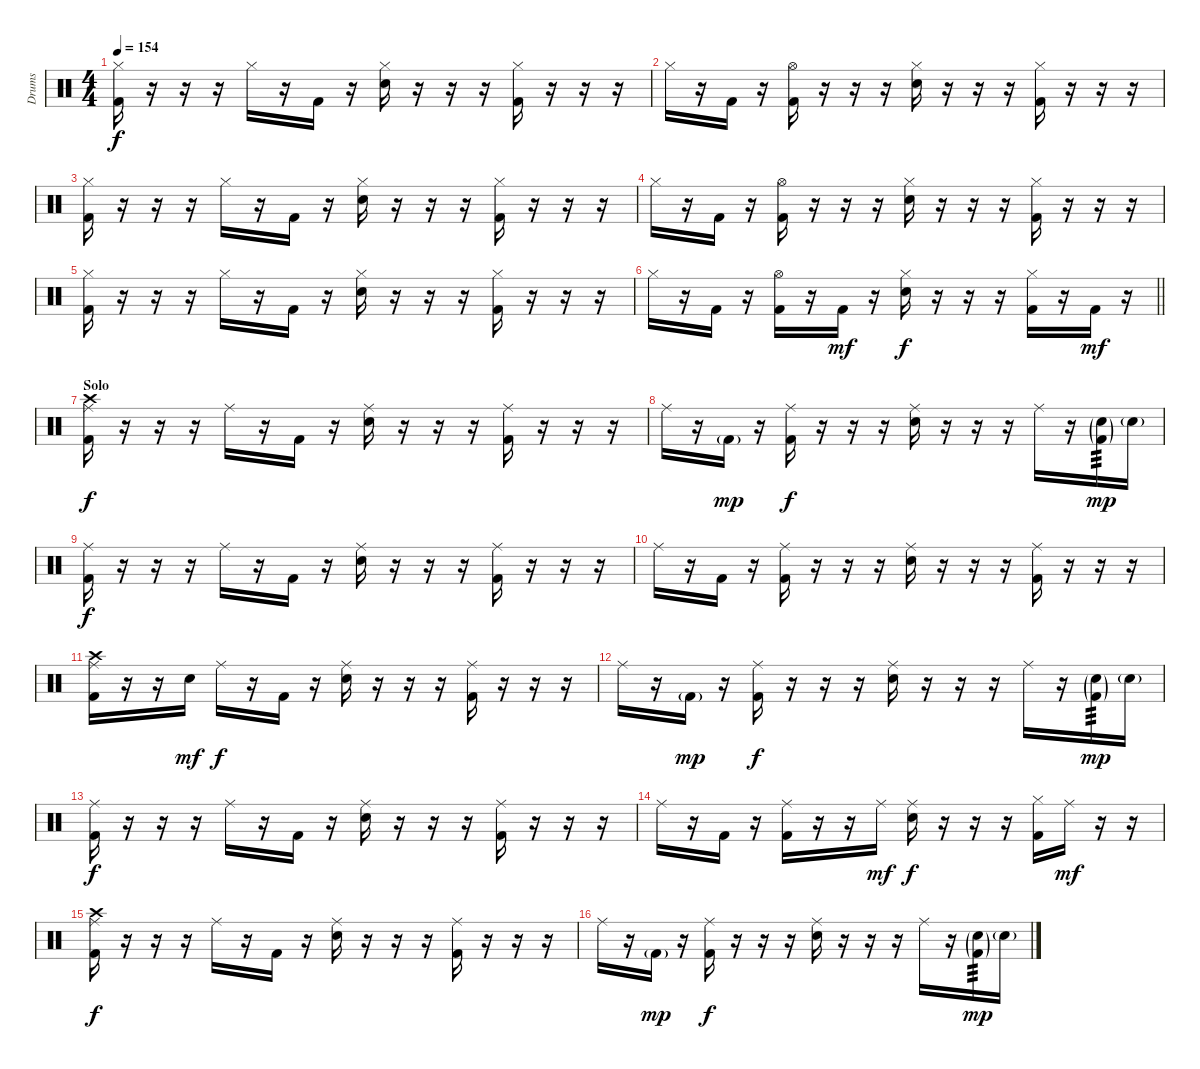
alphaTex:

\track ("Drums" "Drums") {instrument percussion}
\staff {score}
\articulation defaults
\ts (4 4)
\tempo 154
\clef neutral
\ks c
("Hi-Hat (closed)" "Kick (hit) 2").16{dy f} r.16 r.16 r.16 "Hi-Hat (closed)".16 r.16 "Kick (hit) 2".16 r.16 ("Hi-Hat (closed)" "Electric Snare (hit)").16 r.16 r.16 r.16 ("Hi-Hat (closed)" "Kick (hit) 2").16 r.16 r.16 r.16 |
"Hi-Hat (closed)".16 r.16 "Kick (hit) 2".16 r.16 ("Hi-Hat (open)" "Kick (hit) 2").16 r.16 r.16 r.16 ("Hi-Hat (closed)" "Electric Snare (hit)").16 r.16 r.16 r.16 ("Hi-Hat (closed)" "Kick (hit) 2").16 r.16 r.16 r.16 |
("Hi-Hat (closed)" "Kick (hit) 2").16 r.16 r.16 r.16 "Hi-Hat (closed)".16 r.16 "Kick (hit) 2".16 r.16 ("Hi-Hat (closed)" "Electric Snare (hit)").16 r.16 r.16 r.16 ("Hi-Hat (closed)" "Kick (hit) 2").16 r.16 r.16 r.16 |
"Hi-Hat (closed)".16 r.16 "Kick (hit) 2".16 r.16 ("Hi-Hat (open)" "Kick (hit) 2").16 r.16 r.16 r.16 ("Hi-Hat (closed)" "Electric Snare (hit)").16 r.16 r.16 r.16 ("Hi-Hat (closed)" "Kick (hit) 2").16 r.16 r.16 r.16 |
("Hi-Hat (closed)" "Kick (hit) 2").16 r.16 r.16 r.16 "Hi-Hat (closed)".16 r.16 "Kick (hit) 2".16 r.16 ("Hi-Hat (closed)" "Electric Snare (hit)").16 r.16 r.16 r.16 ("Hi-Hat (closed)" "Kick (hit) 2").16 r.16 r.16 r.16 |
\barLineRight lightlight "Hi-Hat (closed)".16
r.16 "Kick (hit) 2".16 r.16 ("Hi-Hat (open)" "Kick (hit) 2").16 r.16 "Kick (hit) 2".16{dy mf} r.16 ("Hi-Hat (closed)" "Electric Snare (hit)").16{dy f} r.16 r.16 r.16 ("Hi-Hat (closed)" "Kick (hit) 2").16 r.16 "Kick (hit) 2".16{dy mf} r.16 |
\section ("" "Solo")
("Crash high (hit)" "Ride (middle)" "Kick (hit) 2").16{dy f} r.16 r.16 r.16 "Ride (middle)".16 r.16 "Kick (hit) 2".16 r.16 ("Ride (middle)" "Electric Snare (hit)").16 r.16 r.16 r.16 ("Ride (middle)" "Kick (hit) 2").16 r.16 r.16 r.16 |
"Ride (middle)".16 r.16 "Kick (hit) 2"{g}.16{dy mp} r.16 ("Ride (middle)" "Kick (hit) 2").16{dy f} r.16 r.16 r.16 ("Ride (middle)" "Electric Snare (hit)").16 r.16 r.16 r.16 "Ride (middle)".16 r.16 ("Electric Snare (hit)"{g} "Kick (hit) 2"{g}).16{tp 3 dy mp} "Electric Snare (hit)"{g}.16 |
("Ride (middle)" "Kick (hit) 2").16{dy f} r.16 r.16 r.16 "Ride (middle)".16 r.16 "Kick (hit) 2".16 r.16 ("Ride (middle)" "Electric Snare (hit)").16 r.16 r.16 r.16 ("Ride (middle)" "Kick (hit) 2").16 r.16 r.16 r.16 |
"Ride (middle)".16 r.16 "Kick (hit) 2".16 r.16 ("Ride (middle)" "Kick (hit) 2").16 r.16 r.16 r.16 ("Ride (middle)" "Electric Snare (hit)").16 r.16 r.16 r.16 ("Ride (middle)" "Kick (hit) 2").16 r.16 r.16 r.16 |
("Crash high (hit)" "Ride (middle)" "Kick (hit) 2").16 r.16 r.16 "Snare (hit)".16{dy mf} "Ride (middle)".16{dy f} r.16 "Kick (hit) 2".16 r.16 ("Ride (middle)" "Electric Snare (hit)").16 r.16 r.16 r.16 ("Ride (middle)" "Kick (hit) 2").16 r.16 r.16 r.16 |
"Ride (middle)".16 r.16 "Kick (hit) 2"{g}.16{dy mp} r.16 ("Ride (middle)" "Kick (hit) 2").16{dy f} r.16 r.16 r.16 ("Ride (middle)" "Electric Snare (hit)").16 r.16 r.16 r.16 "Ride (middle)".16 r.16 ("Electric Snare (hit)"{g} "Kick (hit) 2"{g}).16{tp 3 dy mp} "Electric Snare (hit)"{g}.16 |
("Ride (middle)" "Kick (hit) 2").16{dy f} r.16 r.16 r.16 "Ride (middle)".16 r.16 "Kick (hit) 2".16 r.16 ("Ride (middle)" "Electric Snare (hit)").16 r.16 r.16 r.16 ("Ride (middle)" "Kick (hit) 2").16 r.16 r.16 r.16 |
"Ride (middle)".16 r.16 "Kick (hit) 2".16 r.16 ("Ride (middle)" "Kick (hit) 2").16 r.16 r.16 "Ride (middle)".16{dy mf} ("Ride (middle)" "Electric Snare (hit)").16{dy f} r.16 r.16 r.16 ("Hi-Hat (closed)" "Kick (hit) 2").16 "Ride (middle)".16{dy mf} r.16 r.16 |
("Crash high (hit)" "Ride (middle)" "Kick (hit) 2").16{dy f} r.16 r.16 r.16 "Ride (middle)".16 r.16 "Kick (hit) 2".16 r.16 ("Ride (middle)" "Electric Snare (hit)").16 r.16 r.16 r.16 ("Ride (middle)" "Kick (hit) 2").16 r.16 r.16 r.16 |
"Ride (middle)".16 r.16 "Kick (hit) 2"{g}.16{dy mp} r.16 ("Ride (middle)" "Kick (hit) 2").16{dy f} r.16 r.16 r.16 ("Ride (middle)" "Electric Snare (hit)").16 r.16 r.16 r.16 "Ride (middle)".16 r.16 ("Electric Snare (hit)"{g} "Kick (hit) 2"{g}).16{tp 3 dy mp} "Electric Snare (hit)"{g}.16
